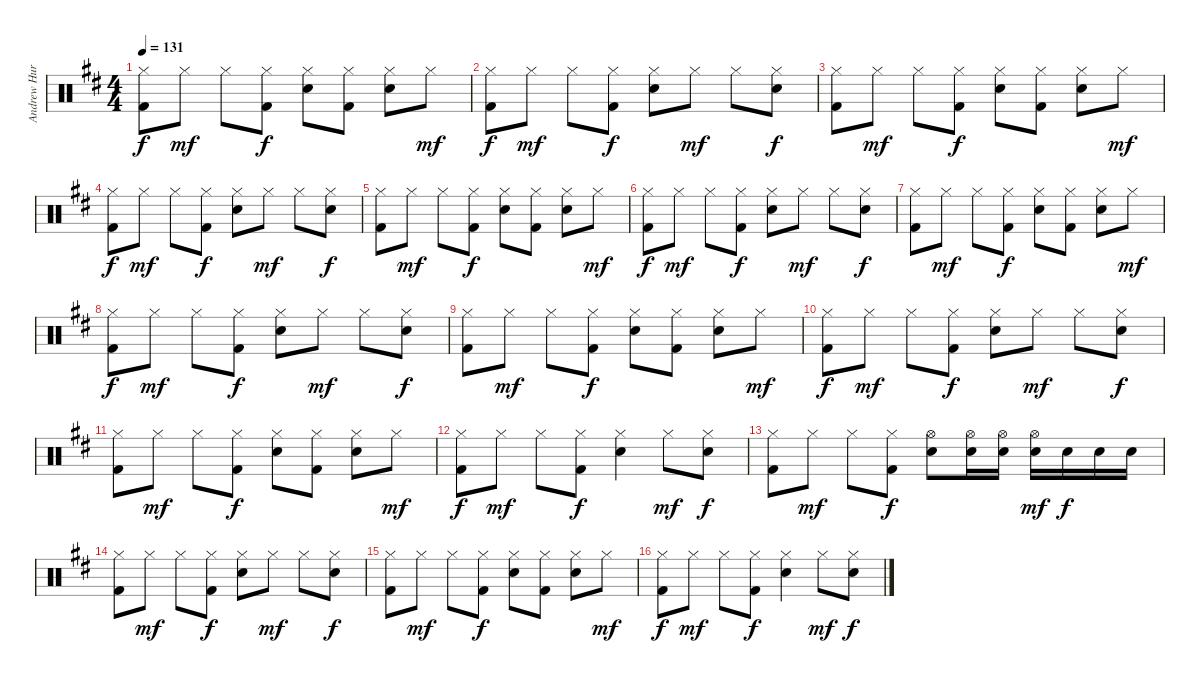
\track ("Andrew Hurley" "Andrew Hur") {instrument percussion}
\staff {score}
\articulation defaults
\ts (4 4)
\tempo 131
\clef neutral
\ks d
("Hi-Hat (closed)" "Kick (hit) 2").8{dy f} "Hi-Hat (closed)".8{dy mf} "Hi-Hat (closed)".8 ("Hi-Hat (closed)" "Kick (hit) 2").8{dy f} ("Hi-Hat (closed)" "Electric Snare (hit)").8 ("Hi-Hat (closed)" "Kick (hit) 2").8 ("Hi-Hat (closed)" "Electric Snare (hit)").8 "Hi-Hat (closed)".8{dy mf} |
("Hi-Hat (closed)" "Kick (hit) 2").8{dy f} "Hi-Hat (closed)".8{dy mf} "Hi-Hat (closed)".8 ("Hi-Hat (closed)" "Kick (hit) 2").8{dy f} ("Hi-Hat (closed)" "Electric Snare (hit)").8 "Hi-Hat (closed)".8{dy mf} "Hi-Hat (closed)".8 ("Hi-Hat (closed)" "Electric Snare (hit)").8{dy f} |
("Hi-Hat (closed)" "Kick (hit) 2").8 "Hi-Hat (closed)".8{dy mf} "Hi-Hat (closed)".8 ("Hi-Hat (closed)" "Kick (hit) 2").8{dy f} ("Hi-Hat (closed)" "Electric Snare (hit)").8 ("Hi-Hat (closed)" "Kick (hit) 2").8 ("Hi-Hat (closed)" "Electric Snare (hit)").8 "Hi-Hat (closed)".8{dy mf} |
("Hi-Hat (closed)" "Kick (hit) 2").8{dy f} "Hi-Hat (closed)".8{dy mf} "Hi-Hat (closed)".8 ("Hi-Hat (closed)" "Kick (hit) 2").8{dy f} ("Hi-Hat (closed)" "Electric Snare (hit)").8 "Hi-Hat (closed)".8{dy mf} "Hi-Hat (closed)".8 ("Hi-Hat (closed)" "Electric Snare (hit)").8{dy f} |
("Hi-Hat (closed)" "Kick (hit) 2").8 "Hi-Hat (closed)".8{dy mf} "Hi-Hat (closed)".8 ("Hi-Hat (closed)" "Kick (hit) 2").8{dy f} ("Hi-Hat (closed)" "Electric Snare (hit)").8 ("Hi-Hat (closed)" "Kick (hit) 2").8 ("Hi-Hat (closed)" "Electric Snare (hit)").8 "Hi-Hat (closed)".8{dy mf} |
("Hi-Hat (closed)" "Kick (hit) 2").8{dy f} "Hi-Hat (closed)".8{dy mf} "Hi-Hat (closed)".8 ("Hi-Hat (closed)" "Kick (hit) 2").8{dy f} ("Hi-Hat (closed)" "Electric Snare (hit)").8 "Hi-Hat (closed)".8{dy mf} "Hi-Hat (closed)".8 ("Hi-Hat (closed)" "Electric Snare (hit)").8{dy f} |
("Hi-Hat (closed)" "Kick (hit) 2").8 "Hi-Hat (closed)".8{dy mf} "Hi-Hat (closed)".8 ("Hi-Hat (closed)" "Kick (hit) 2").8{dy f} ("Hi-Hat (closed)" "Electric Snare (hit)").8 ("Hi-Hat (closed)" "Kick (hit) 2").8 ("Hi-Hat (closed)" "Electric Snare (hit)").8 "Hi-Hat (closed)".8{dy mf} |
("Hi-Hat (closed)" "Kick (hit) 2").8{dy f} "Hi-Hat (closed)".8{dy mf} "Hi-Hat (closed)".8 ("Hi-Hat (closed)" "Kick (hit) 2").8{dy f} ("Hi-Hat (closed)" "Electric Snare (hit)").8 "Hi-Hat (closed)".8{dy mf} "Hi-Hat (closed)".8 ("Hi-Hat (closed)" "Electric Snare (hit)").8{dy f} |
("Hi-Hat (closed)" "Kick (hit) 2").8 "Hi-Hat (closed)".8{dy mf} "Hi-Hat (closed)".8 ("Hi-Hat (closed)" "Kick (hit) 2").8{dy f} ("Hi-Hat (closed)" "Electric Snare (hit)").8 ("Hi-Hat (closed)" "Kick (hit) 2").8 ("Hi-Hat (closed)" "Electric Snare (hit)").8 "Hi-Hat (closed)".8{dy mf} |
("Hi-Hat (closed)" "Kick (hit) 2").8{dy f} "Hi-Hat (closed)".8{dy mf} "Hi-Hat (closed)".8 ("Hi-Hat (closed)" "Kick (hit) 2").8{dy f} ("Hi-Hat (closed)" "Electric Snare (hit)").8 "Hi-Hat (closed)".8{dy mf} "Hi-Hat (closed)".8 ("Hi-Hat (closed)" "Electric Snare (hit)").8{dy f} |
("Hi-Hat (closed)" "Kick (hit) 2").8 "Hi-Hat (closed)".8{dy mf} "Hi-Hat (closed)".8 ("Hi-Hat (closed)" "Kick (hit) 2").8{dy f} ("Hi-Hat (closed)" "Electric Snare (hit)").8 ("Hi-Hat (closed)" "Kick (hit) 2").8 ("Hi-Hat (closed)" "Electric Snare (hit)").8 "Hi-Hat (closed)".8{dy mf} |
("Hi-Hat (closed)" "Kick (hit) 2").8{dy f} "Hi-Hat (closed)".8{dy mf} "Hi-Hat (closed)".8 ("Hi-Hat (closed)" "Kick (hit) 2").8{dy f} ("Hi-Hat (closed)" "Electric Snare (hit)").4 "Hi-Hat (closed)".8{dy mf} ("Hi-Hat (closed)" "Electric Snare (hit)").8{dy f} |
("Hi-Hat (closed)" "Kick (hit) 2").8 "Hi-Hat (closed)".8{dy mf} "Hi-Hat (closed)".8 ("Hi-Hat (closed)" "Kick (hit) 2").8{dy f} ("Hi-Hat (open)" "Electric Snare (hit)").8 ("Hi-Hat (open)" "Electric Snare (hit)").16 ("Hi-Hat (open)" "Electric Snare (hit)").16 ("Hi-Hat (open)" "Electric Snare (hit)").16{dy mf} "Electric Snare (hit)".16{dy f} "Electric Snare (hit)".16 "Electric Snare (hit)".16 |
("Hi-Hat (closed)" "Kick (hit) 2").8 "Hi-Hat (closed)".8{dy mf} "Hi-Hat (closed)".8 ("Hi-Hat (closed)" "Kick (hit) 2").8{dy f} ("Hi-Hat (closed)" "Electric Snare (hit)").8 "Hi-Hat (closed)".8{dy mf} "Hi-Hat (closed)".8 ("Hi-Hat (closed)" "Electric Snare (hit)").8{dy f} |
("Hi-Hat (closed)" "Kick (hit) 2").8 "Hi-Hat (closed)".8{dy mf} "Hi-Hat (closed)".8 ("Hi-Hat (closed)" "Kick (hit) 2").8{dy f} ("Hi-Hat (closed)" "Electric Snare (hit)").8 ("Hi-Hat (closed)" "Kick (hit) 2").8 ("Hi-Hat (closed)" "Electric Snare (hit)").8 "Hi-Hat (closed)".8{dy mf} |
("Hi-Hat (closed)" "Kick (hit) 2").8{dy f} "Hi-Hat (closed)".8{dy mf} "Hi-Hat (closed)".8 ("Hi-Hat (closed)" "Kick (hit) 2").8{dy f} ("Hi-Hat (closed)" "Electric Snare (hit)").4 "Hi-Hat (closed)".8{dy mf} ("Hi-Hat (closed)" "Electric Snare (hit)").8{dy f}
